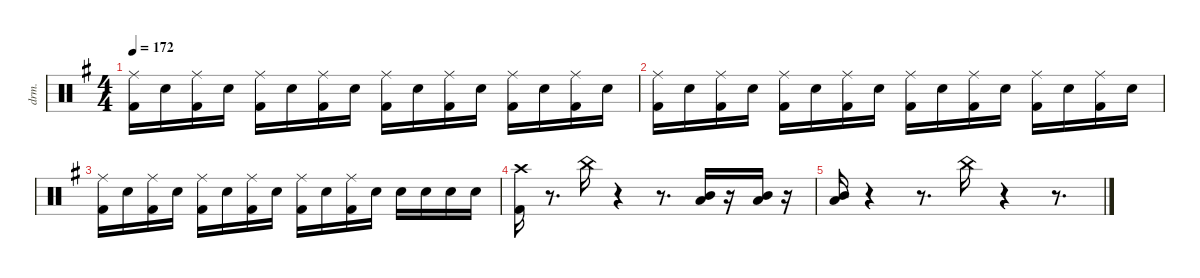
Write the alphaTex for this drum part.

\defaultSystemsLayout 4
\hideDynamics
\bracketExtendMode nobrackets
\otherSystemsTrackNameOrientation horizontal
\track ("Shinya" "drm.") {instrument percussion}
\staff {score}
\articulation defaults
\ts (4 4)
\tempo 172
\clef neutral
\ks eminor
("Kick (hit) 2"{acc forcenatural} "Ride (middle)"{acc #}).16{dy fff} "Snare (hit) 2"{acc forcenatural}.16 ("Kick (hit) 2"{acc forcenatural} "Ride (middle)"{acc #}).16 "Snare (hit) 2"{acc forcenatural}.16 ("Kick (hit) 2"{acc forcenatural} "Ride (middle)"{acc #}).16 "Snare (hit) 2"{acc forcenatural}.16 ("Kick (hit) 2"{acc forcenatural} "Ride (middle)"{acc #}).16 "Snare (hit) 2"{acc forcenatural}.16 ("Kick (hit) 2"{acc forcenatural} "Ride (middle)"{acc #}).16 "Snare (hit) 2"{acc forcenatural}.16 ("Kick (hit) 2"{acc forcenatural} "Ride (middle)"{acc #}).16 "Snare (hit) 2"{acc forcenatural}.16 ("Kick (hit) 2"{acc forcenatural} "Ride (middle)"{acc #}).16 "Snare (hit) 2"{acc forcenatural}.16 ("Kick (hit) 2"{acc forcenatural} "Ride (middle)"{acc #}).16 "Snare (hit) 2"{acc forcenatural}.16 |
("Kick (hit) 2"{acc forcenatural} "Ride (middle)"{acc #}).16 "Snare (hit) 2"{acc forcenatural}.16 ("Kick (hit) 2"{acc forcenatural} "Ride (middle)"{acc #}).16 "Snare (hit) 2"{acc forcenatural}.16 ("Kick (hit) 2"{acc forcenatural} "Ride (middle)"{acc #}).16 "Snare (hit) 2"{acc forcenatural}.16 ("Kick (hit) 2"{acc forcenatural} "Ride (middle)"{acc #}).16 "Snare (hit) 2"{acc forcenatural}.16 ("Kick (hit) 2"{acc forcenatural} "Ride (middle)"{acc #}).16 "Snare (hit) 2"{acc forcenatural}.16 ("Kick (hit) 2"{acc forcenatural} "Ride (middle)"{acc #}).16 "Snare (hit) 2"{acc forcenatural}.16 ("Kick (hit) 2"{acc forcenatural} "Ride (middle)"{acc #}).16 "Snare (hit) 2"{acc forcenatural}.16 ("Kick (hit) 2"{acc forcenatural} "Ride (middle)"{acc #}).16 "Snare (hit) 2"{acc forcenatural}.16 |
("Kick (hit) 2"{acc forcenatural} "Ride (middle)"{acc #}).16 "Snare (hit) 2"{acc forcenatural}.16 ("Kick (hit) 2"{acc forcenatural} "Ride (middle)"{acc #}).16 "Snare (hit) 2"{acc forcenatural}.16 ("Kick (hit) 2"{acc forcenatural} "Ride (middle)"{acc #}).16 "Snare (hit) 2"{acc forcenatural}.16 ("Kick (hit) 2"{acc forcenatural} "Ride (middle)"{acc #}).16 "Snare (hit) 2"{acc forcenatural}.16 ("Kick (hit) 2"{acc forcenatural} "Ride (middle)"{acc #}).16 "Snare (hit) 2"{acc forcenatural}.16 ("Kick (hit) 2"{acc forcenatural} "Ride (middle)"{acc #}).16 "Snare (hit) 2"{acc forcenatural}.16 "Snare (hit) 2"{acc forcenatural}.16 "Snare (hit) 2"{acc forcenatural}.16 "Snare (hit) 2"{acc forcenatural}.16 "Snare (hit) 2"{acc forcenatural}.16 |
("Kick (hit) 2"{acc forcenatural} "Crash high (hit)"{acc #}).16 r.8{d} "China (hit)"{acc forcenatural}.16 r.4 r.8{d} ("Low Tom (hit)"{acc forcenatural} "Mid Tom (hit)"{acc forcenatural}).16 r.16 ("Low Tom (hit)"{acc forcenatural} "Mid Tom (hit)"{acc forcenatural}).16 r.16 |
("Low Tom (hit)"{acc forcenatural} "Mid Tom (hit)"{acc forcenatural}).16 r.4 r.8{d} "China (hit)"{acc forcenatural}.16{dy mf} r.4 r.8{d}
